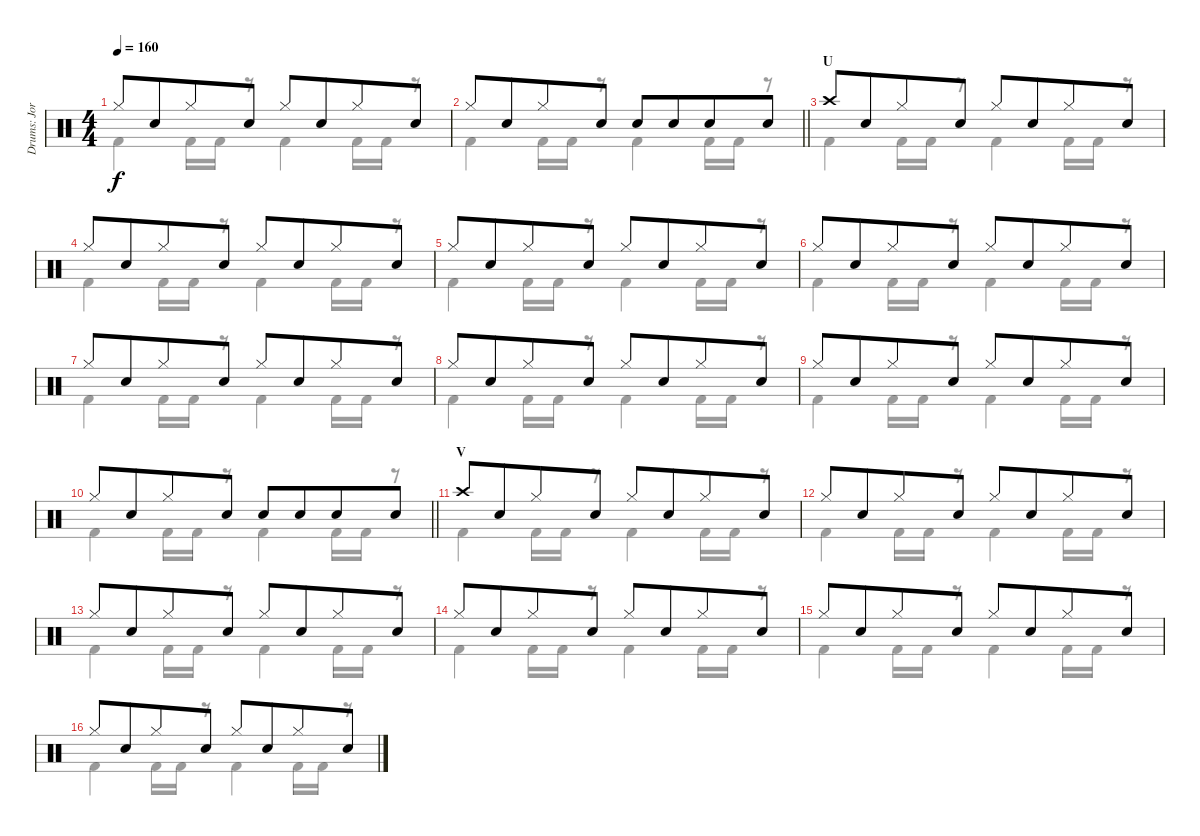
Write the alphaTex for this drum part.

\track ("Drums: Jorg" "Drums: Jor") {instrument percussion}
\staff {score}
\articulation defaults
\voice
\ts (4 4)
\tempo 160
\clef neutral
\ks c "Hi-Hat (closed)".8{dy f} "Snare (hit) 2".8{beam merge} "Hi-Hat (closed)".8 "Snare (hit) 2".8 "Hi-Hat (closed)".8 "Snare (hit) 2".8{beam merge} "Hi-Hat (closed)".8 "Snare (hit) 2".8
|
\barLineRight lightlight "Hi-Hat (closed)".8 "Snare (hit) 2".8{beam merge} "Hi-Hat (closed)".8 "Snare (hit) 2".8 "Snare (hit) 2".8 "Snare (hit) 2".8{beam merge} "Snare (hit) 2".8 "Snare (hit) 2".8
|
\section ("" "U")
"Crash high (hit)".8 "Snare (hit) 2".8{beam merge} "Hi-Hat (closed)".8 "Snare (hit) 2".8{beam split} "Hi-Hat (closed)".8 "Snare (hit) 2".8{beam merge} "Hi-Hat (closed)".8 "Snare (hit) 2".8 |
"Hi-Hat (closed)".8 "Snare (hit) 2".8{beam merge} "Hi-Hat (closed)".8 "Snare (hit) 2".8{beam split} "Hi-Hat (closed)".8 "Snare (hit) 2".8{beam merge} "Hi-Hat (closed)".8 "Snare (hit) 2".8 |
"Hi-Hat (closed)".8 "Snare (hit) 2".8{beam merge} "Hi-Hat (closed)".8 "Snare (hit) 2".8{beam split} "Hi-Hat (closed)".8 "Snare (hit) 2".8{beam merge} "Hi-Hat (closed)".8 "Snare (hit) 2".8 |
"Hi-Hat (closed)".8 "Snare (hit) 2".8{beam merge} "Hi-Hat (closed)".8 "Snare (hit) 2".8{beam split} "Hi-Hat (closed)".8 "Snare (hit) 2".8{beam merge} "Hi-Hat (closed)".8 "Snare (hit) 2".8 |
"Hi-Hat (closed)".8 "Snare (hit) 2".8{beam merge} "Hi-Hat (closed)".8 "Snare (hit) 2".8{beam split} "Hi-Hat (closed)".8 "Snare (hit) 2".8{beam merge} "Hi-Hat (closed)".8 "Snare (hit) 2".8 |
"Hi-Hat (closed)".8 "Snare (hit) 2".8{beam merge} "Hi-Hat (closed)".8 "Snare (hit) 2".8{beam split} "Hi-Hat (closed)".8 "Snare (hit) 2".8{beam merge} "Hi-Hat (closed)".8 "Snare (hit) 2".8 |
"Hi-Hat (closed)".8 "Snare (hit) 2".8{beam merge} "Hi-Hat (closed)".8 "Snare (hit) 2".8 "Hi-Hat (closed)".8 "Snare (hit) 2".8{beam merge} "Hi-Hat (closed)".8 "Snare (hit) 2".8 |
\barLineRight lightlight "Hi-Hat (closed)".8 "Snare (hit) 2".8{beam merge} "Hi-Hat (closed)".8 "Snare (hit) 2".8 "Snare (hit) 2".8 "Snare (hit) 2".8{beam merge} "Snare (hit) 2".8 "Snare (hit) 2".8
|
\section ("" "V")
"Crash high (hit)".8 "Snare (hit) 2".8{beam merge} "Hi-Hat (closed)".8 "Snare (hit) 2".8{beam split} "Hi-Hat (closed)".8 "Snare (hit) 2".8{beam merge} "Hi-Hat (closed)".8 "Snare (hit) 2".8 |
"Hi-Hat (closed)".8 "Snare (hit) 2".8{beam merge} "Hi-Hat (closed)".8 "Snare (hit) 2".8{beam split} "Hi-Hat (closed)".8 "Snare (hit) 2".8{beam merge} "Hi-Hat (closed)".8 "Snare (hit) 2".8 |
"Hi-Hat (closed)".8 "Snare (hit) 2".8{beam merge} "Hi-Hat (closed)".8 "Snare (hit) 2".8{beam split} "Hi-Hat (closed)".8 "Snare (hit) 2".8{beam merge} "Hi-Hat (closed)".8 "Snare (hit) 2".8 |
"Hi-Hat (closed)".8 "Snare (hit) 2".8{beam merge} "Hi-Hat (closed)".8 "Snare (hit) 2".8{beam split} "Hi-Hat (closed)".8 "Snare (hit) 2".8{beam merge} "Hi-Hat (closed)".8 "Snare (hit) 2".8 |
"Hi-Hat (closed)".8 "Snare (hit) 2".8{beam merge} "Hi-Hat (closed)".8 "Snare (hit) 2".8{beam split} "Hi-Hat (closed)".8 "Snare (hit) 2".8{beam merge} "Hi-Hat (closed)".8 "Snare (hit) 2".8 |
"Hi-Hat (closed)".8 "Snare (hit) 2".8{beam merge} "Hi-Hat (closed)".8 "Snare (hit) 2".8{beam split} "Hi-Hat (closed)".8 "Snare (hit) 2".8{beam merge} "Hi-Hat (closed)".8 "Snare (hit) 2".8
\voice
\clef neutral
\ottava regular
\simile none
\ks c "Kick (hit) 2".4{dy f} "Kick (hit) 2".16 "Kick (hit) 2".16
r.8 "Kick (hit) 2".4 "Kick (hit) 2".16 "Kick (hit) 2".16 r.8 |
\barLineRight lightlight "Kick (hit) 2".4 "Kick (hit) 2".16 "Kick (hit) 2".16
r.8 "Kick (hit) 2".4 "Kick (hit) 2".16 "Kick (hit) 2".16 r.8 |
"Kick (hit) 2".4 "Kick (hit) 2".16 "Kick (hit) 2".16 r.8 "Kick (hit) 2".4 "Kick (hit) 2".16 "Kick (hit) 2".16 r.8 |
"Kick (hit) 2".4 "Kick (hit) 2".16 "Kick (hit) 2".16 r.8 "Kick (hit) 2".4 "Kick (hit) 2".16 "Kick (hit) 2".16 r.8 |
"Kick (hit) 2".4 "Kick (hit) 2".16 "Kick (hit) 2".16 r.8 "Kick (hit) 2".4 "Kick (hit) 2".16 "Kick (hit) 2".16 r.8 |
"Kick (hit) 2".4 "Kick (hit) 2".16 "Kick (hit) 2".16 r.8 "Kick (hit) 2".4 "Kick (hit) 2".16 "Kick (hit) 2".16 r.8 |
"Kick (hit) 2".4 "Kick (hit) 2".16 "Kick (hit) 2".16 r.8 "Kick (hit) 2".4 "Kick (hit) 2".16 "Kick (hit) 2".16 r.8 |
"Kick (hit) 2".4 "Kick (hit) 2".16 "Kick (hit) 2".16 r.8 "Kick (hit) 2".4 "Kick (hit) 2".16 "Kick (hit) 2".16 r.8 |
"Kick (hit) 2".4 "Kick (hit) 2".16 "Kick (hit) 2".16 r.8 "Kick (hit) 2".4 "Kick (hit) 2".16 "Kick (hit) 2".16 r.8 |
\barLineRight lightlight "Kick (hit) 2".4 "Kick (hit) 2".16 "Kick (hit) 2".16
r.8 "Kick (hit) 2".4 "Kick (hit) 2".16 "Kick (hit) 2".16 r.8 |
"Kick (hit) 2".4 "Kick (hit) 2".16 "Kick (hit) 2".16 r.8 "Kick (hit) 2".4 "Kick (hit) 2".16 "Kick (hit) 2".16 r.8 |
"Kick (hit) 2".4 "Kick (hit) 2".16 "Kick (hit) 2".16 r.8 "Kick (hit) 2".4 "Kick (hit) 2".16 "Kick (hit) 2".16 r.8 |
"Kick (hit) 2".4 "Kick (hit) 2".16 "Kick (hit) 2".16 r.8 "Kick (hit) 2".4 "Kick (hit) 2".16 "Kick (hit) 2".16 r.8 |
"Kick (hit) 2".4 "Kick (hit) 2".16 "Kick (hit) 2".16 r.8 "Kick (hit) 2".4 "Kick (hit) 2".16 "Kick (hit) 2".16 r.8 |
"Kick (hit) 2".4 "Kick (hit) 2".16 "Kick (hit) 2".16 r.8 "Kick (hit) 2".4 "Kick (hit) 2".16 "Kick (hit) 2".16 r.8 |
"Kick (hit) 2".4 "Kick (hit) 2".16 "Kick (hit) 2".16 r.8 "Kick (hit) 2".4 "Kick (hit) 2".16 "Kick (hit) 2".16 r.8
